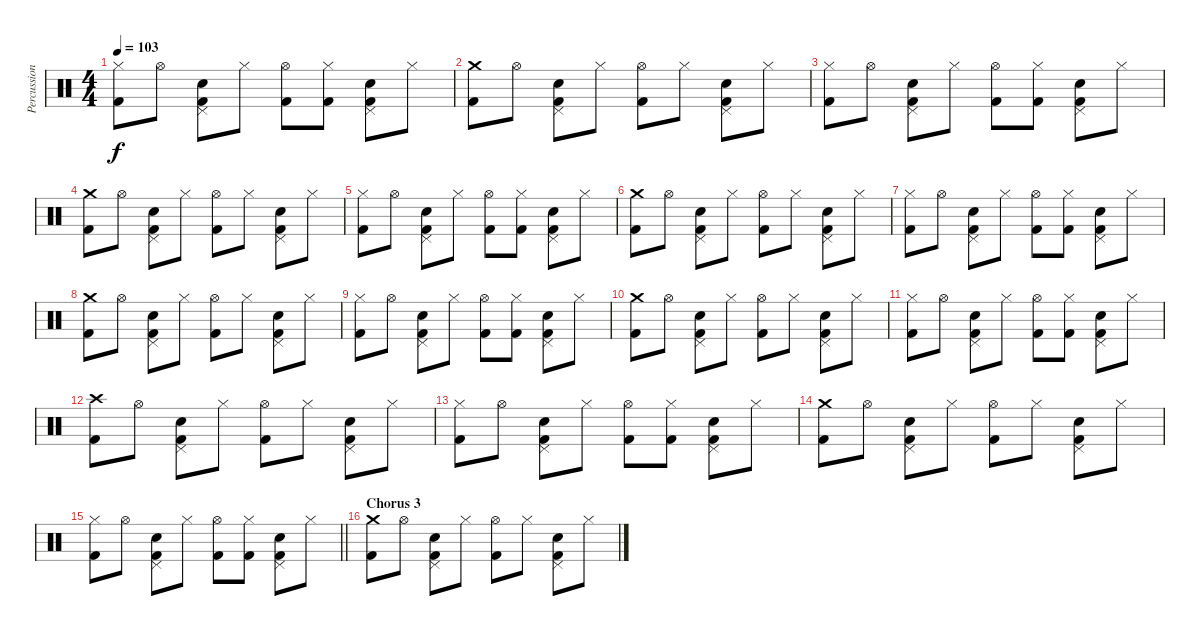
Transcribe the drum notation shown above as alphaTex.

\track ("Percussion: Denny Carmassi" "Percussion") {instrument percussion}
\staff {score}
\articulation defaults
\ts (4 4)
\tempo 103
\clef neutral
\ks c
("Hi-Hat (closed)" "Kick (hit) 2").8{dy f} "Hi-Hat (open)".8 ("Pedal Hi-Hat (hit)" "Snare (hit) 2" "Kick (hit) 2").8 "Hi-Hat (closed)".8 ("Hi-Hat (open)" "Kick (hit) 2").8 ("Hi-Hat (closed)" "Kick (hit) 2").8 ("Pedal Hi-Hat (hit)" "Snare (hit) 2" "Kick (hit) 2").8 "Hi-Hat (closed)".8 |
("Crash medium (hit)" "Kick (hit) 2").8 "Hi-Hat (open)".8 ("Pedal Hi-Hat (hit)" "Snare (hit) 2" "Kick (hit) 2").8 "Hi-Hat (closed)".8 ("Hi-Hat (open)" "Kick (hit) 2").8 "Hi-Hat (closed)".8 ("Pedal Hi-Hat (hit)" "Snare (hit) 2" "Kick (hit) 2").8 "Hi-Hat (closed)".8 |
("Hi-Hat (closed)" "Kick (hit) 2").8 "Hi-Hat (open)".8 ("Pedal Hi-Hat (hit)" "Snare (hit) 2" "Kick (hit) 2").8 "Hi-Hat (closed)".8 ("Hi-Hat (open)" "Kick (hit) 2").8 ("Hi-Hat (closed)" "Kick (hit) 2").8 ("Pedal Hi-Hat (hit)" "Snare (hit) 2" "Kick (hit) 2").8 "Hi-Hat (closed)".8 |
("Crash medium (hit)" "Kick (hit) 2").8 "Hi-Hat (open)".8 ("Pedal Hi-Hat (hit)" "Snare (hit) 2" "Kick (hit) 2").8 "Hi-Hat (closed)".8 ("Hi-Hat (open)" "Kick (hit) 2").8 "Hi-Hat (closed)".8 ("Pedal Hi-Hat (hit)" "Snare (hit) 2" "Kick (hit) 2").8 "Hi-Hat (closed)".8 |
("Hi-Hat (closed)" "Kick (hit) 2").8 "Hi-Hat (open)".8 ("Pedal Hi-Hat (hit)" "Snare (hit) 2" "Kick (hit) 2").8 "Hi-Hat (closed)".8 ("Hi-Hat (open)" "Kick (hit) 2").8 ("Hi-Hat (closed)" "Kick (hit) 2").8 ("Pedal Hi-Hat (hit)" "Snare (hit) 2" "Kick (hit) 2").8 "Hi-Hat (closed)".8 |
("Crash medium (hit)" "Kick (hit) 2").8 "Hi-Hat (open)".8 ("Pedal Hi-Hat (hit)" "Snare (hit) 2" "Kick (hit) 2").8 "Hi-Hat (closed)".8 ("Hi-Hat (open)" "Kick (hit) 2").8 "Hi-Hat (closed)".8 ("Pedal Hi-Hat (hit)" "Snare (hit) 2" "Kick (hit) 2").8 "Hi-Hat (closed)".8 |
("Hi-Hat (closed)" "Kick (hit) 2").8 "Hi-Hat (open)".8 ("Pedal Hi-Hat (hit)" "Snare (hit) 2" "Kick (hit) 2").8 "Hi-Hat (closed)".8 ("Hi-Hat (open)" "Kick (hit) 2").8 ("Hi-Hat (closed)" "Kick (hit) 2").8 ("Pedal Hi-Hat (hit)" "Snare (hit) 2" "Kick (hit) 2").8 "Hi-Hat (closed)".8 |
("Crash medium (hit)" "Kick (hit) 2").8 "Hi-Hat (open)".8 ("Pedal Hi-Hat (hit)" "Snare (hit) 2" "Kick (hit) 2").8 "Hi-Hat (closed)".8 ("Hi-Hat (open)" "Kick (hit) 2").8 "Hi-Hat (closed)".8 ("Pedal Hi-Hat (hit)" "Snare (hit) 2" "Kick (hit) 2").8 "Hi-Hat (closed)".8 |
("Hi-Hat (closed)" "Kick (hit) 2").8 "Hi-Hat (open)".8 ("Pedal Hi-Hat (hit)" "Snare (hit) 2" "Kick (hit) 2").8 "Hi-Hat (closed)".8 ("Hi-Hat (open)" "Kick (hit) 2").8 ("Hi-Hat (closed)" "Kick (hit) 2").8 ("Pedal Hi-Hat (hit)" "Snare (hit) 2" "Kick (hit) 2").8 "Hi-Hat (closed)".8 |
("Crash medium (hit)" "Kick (hit) 2").8 "Hi-Hat (open)".8 ("Pedal Hi-Hat (hit)" "Snare (hit) 2" "Kick (hit) 2").8 "Hi-Hat (closed)".8 ("Hi-Hat (open)" "Kick (hit) 2").8 "Hi-Hat (closed)".8 ("Pedal Hi-Hat (hit)" "Snare (hit) 2" "Kick (hit) 2").8 "Hi-Hat (closed)".8 |
("Hi-Hat (closed)" "Kick (hit) 2").8 "Hi-Hat (open)".8 ("Pedal Hi-Hat (hit)" "Snare (hit) 2" "Kick (hit) 2").8 "Hi-Hat (closed)".8 ("Hi-Hat (open)" "Kick (hit) 2").8 ("Hi-Hat (closed)" "Kick (hit) 2").8 ("Pedal Hi-Hat (hit)" "Snare (hit) 2" "Kick (hit) 2").8 "Hi-Hat (closed)".8 |
("Crash high (hit)" "Kick (hit) 2").8 "Hi-Hat (open)".8 ("Pedal Hi-Hat (hit)" "Snare (hit) 2" "Kick (hit) 2").8 "Hi-Hat (closed)".8 ("Hi-Hat (open)" "Kick (hit) 2").8 "Hi-Hat (closed)".8 ("Pedal Hi-Hat (hit)" "Snare (hit) 2" "Kick (hit) 2").8 "Hi-Hat (closed)".8 |
("Hi-Hat (closed)" "Kick (hit) 2").8 "Hi-Hat (open)".8 ("Pedal Hi-Hat (hit)" "Snare (hit) 2" "Kick (hit) 2").8 "Hi-Hat (closed)".8 ("Hi-Hat (open)" "Kick (hit) 2").8 ("Hi-Hat (closed)" "Kick (hit) 2").8 ("Pedal Hi-Hat (hit)" "Snare (hit) 2" "Kick (hit) 2").8 "Hi-Hat (closed)".8 |
("Crash medium (hit)" "Kick (hit) 2").8 "Hi-Hat (open)".8 ("Pedal Hi-Hat (hit)" "Snare (hit) 2" "Kick (hit) 2").8 "Hi-Hat (closed)".8 ("Hi-Hat (open)" "Kick (hit) 2").8 "Hi-Hat (closed)".8 ("Pedal Hi-Hat (hit)" "Snare (hit) 2" "Kick (hit) 2").8 "Hi-Hat (closed)".8 |
\barLineRight lightlight
("Hi-Hat (closed)" "Kick (hit) 2").8 "Hi-Hat (open)".8 ("Pedal Hi-Hat (hit)" "Snare (hit) 2" "Kick (hit) 2").8 "Hi-Hat (closed)".8 ("Hi-Hat (open)" "Kick (hit) 2").8 ("Hi-Hat (closed)" "Kick (hit) 2").8 ("Pedal Hi-Hat (hit)" "Snare (hit) 2" "Kick (hit) 2").8 "Hi-Hat (closed)".8 |
\section ("" "Chorus 3")
("Crash medium (hit)" "Kick (hit) 2").8 "Hi-Hat (open)".8 ("Pedal Hi-Hat (hit)" "Snare (hit) 2" "Kick (hit) 2").8 "Hi-Hat (closed)".8 ("Hi-Hat (open)" "Kick (hit) 2").8 "Hi-Hat (closed)".8 ("Pedal Hi-Hat (hit)" "Snare (hit) 2" "Kick (hit) 2").8 "Hi-Hat (closed)".8
